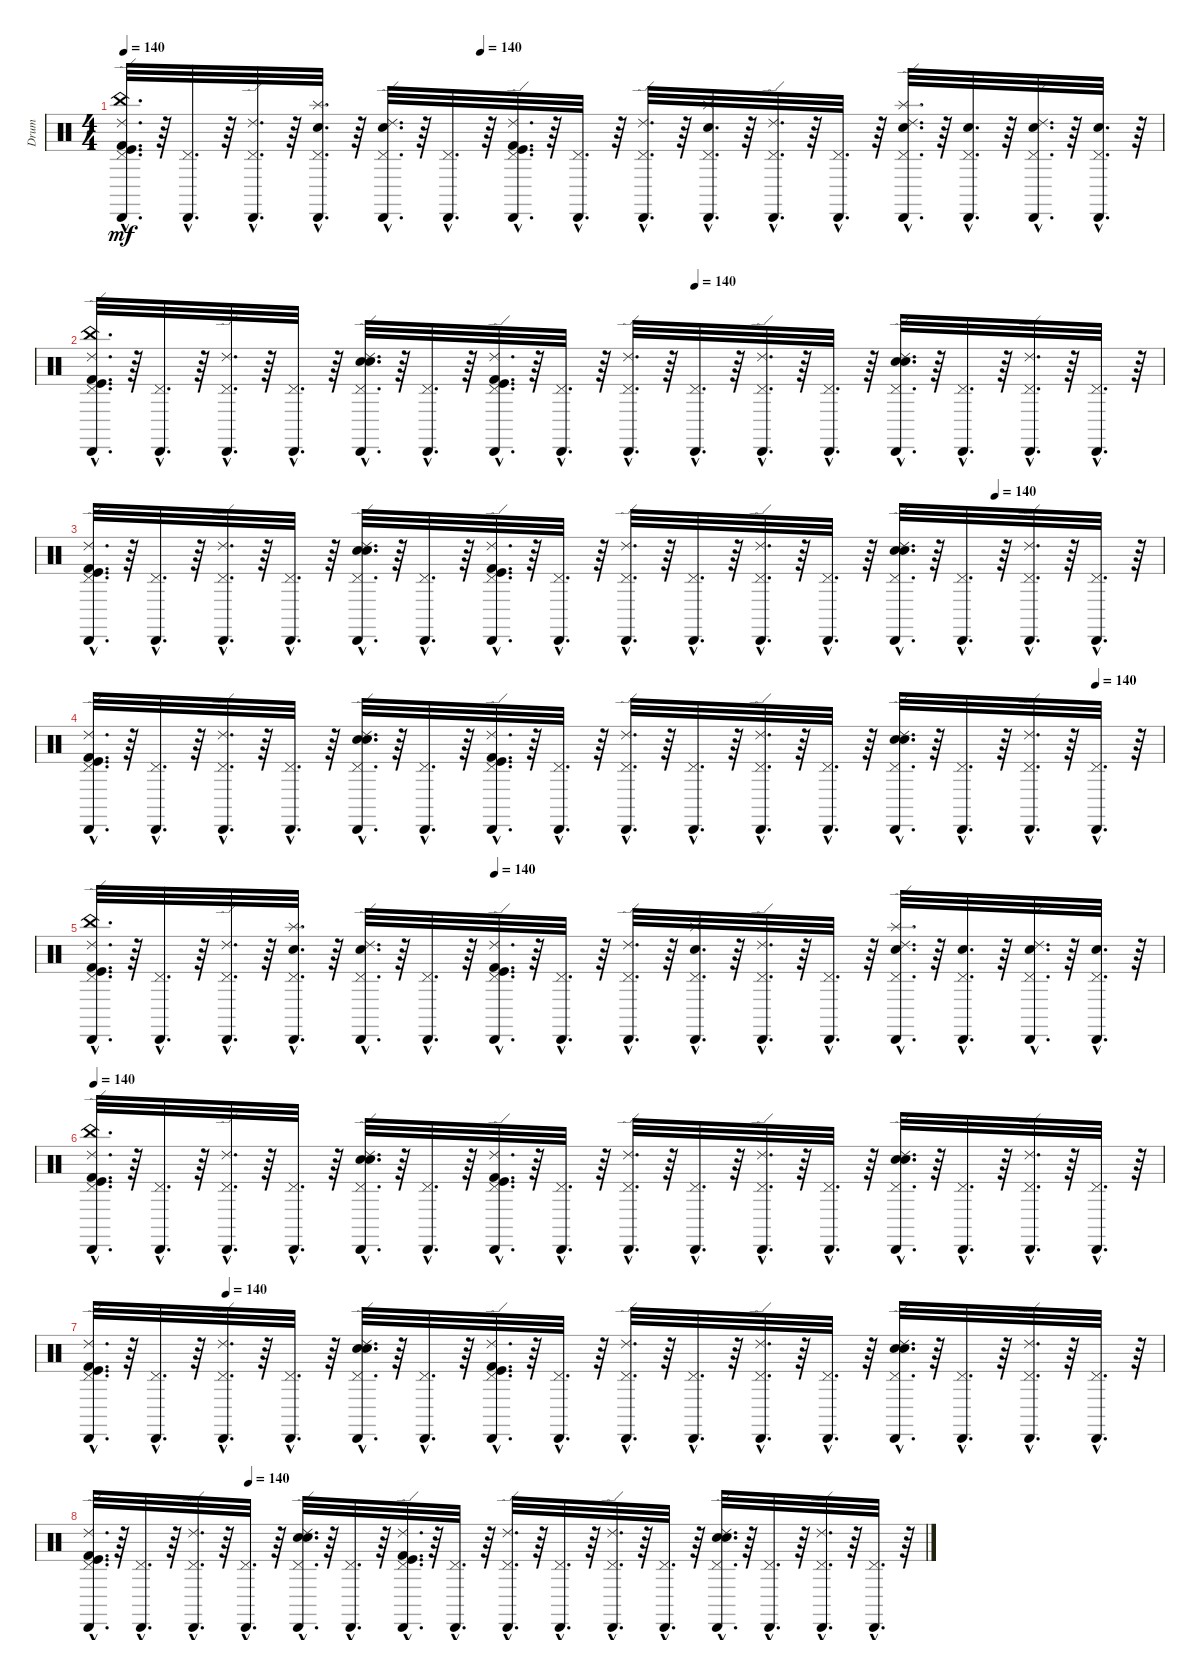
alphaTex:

\track ("Drum" "Drum") {instrument percussion}
\staff {score}
\articulation defaults
\ts (4 4)
\tempo 140
\tempo (140 0.34375)
\clef neutral
\ks c
("Cabasa (hit)"{hac} "China (hit)"{hac} "Pedal Hi-Hat (hit)"{hac} "Kick (hit)"{hac} "Ride (edge) 2"{hac} "Kick (hit) 2"{hac}).32{d dy mf} r.64 ("Pedal Hi-Hat (hit)"{hac} "Cabasa (hit)"{hac}).32{d} r.64 ("Cabasa (hit)"{hac} "Pedal Hi-Hat (hit)"{hac} "Ride (edge) 2"{hac}).32{d} r.64 ("Pedal Hi-Hat (hit)"{hac} "Splash (hit)"{hac} "Snare (hit) 2"{hac} "Cabasa (hit)"{hac}).32{d} r.64 ("Cabasa (hit)"{hac} "Ride (edge) 2"{hac} "Snare (hit) 2"{hac} "Pedal Hi-Hat (hit)"{hac}).32{d} r.64 ("Pedal Hi-Hat (hit)"{hac} "Cabasa (hit)"{hac}).32{d} r.64 ("Kick (hit) 2"{hac} "Kick (hit)"{hac} "Pedal Hi-Hat (hit)"{hac} "Ride (edge) 2"{hac} "Cabasa (hit)"{hac}).32{d} r.64 ("Pedal Hi-Hat (hit)"{hac} "Cabasa (hit)"{hac}).32{d} r.64 ("Ride (edge) 2"{hac} "Cabasa (hit)"{hac} "Pedal Hi-Hat (hit)"{hac}).32{d} r.64 ("Pedal Hi-Hat (hit)"{hac} "Cabasa (hit)"{hac} "Snare (hit) 2"{hac} "Splash (hit)"{hac}).32{d} r.64 ("Pedal Hi-Hat (hit)"{hac} "Ride (edge) 2"{hac} "Cabasa (hit)"{hac}).32{d} r.64 ("Pedal Hi-Hat (hit)"{hac} "Cabasa (hit)"{hac}).32{d} r.64 ("Pedal Hi-Hat (hit)"{hac} "Snare (hit) 2"{hac} "Ride (edge) 2"{hac} "Cabasa (hit)"{hac} "Splash (hit)"{hac}).32{d} r.64 ("Snare (hit) 2"{hac} "Cabasa (hit)"{hac} "Pedal Hi-Hat (hit)"{hac}).32{d} r.64 ("Cabasa (hit)"{hac} "Snare (hit) 2"{hac} "Ride (edge) 2"{hac} "Pedal Hi-Hat (hit)"{hac}).32{d} r.64 ("Pedal Hi-Hat (hit)"{hac} "Snare (hit) 2"{hac} "Cabasa (hit)"{hac}).32{d} r.64 |
\tempo (140 0.5625)
("China (hit)"{hac} "Kick (hit) 2"{hac} "Kick (hit)"{hac} "Ride (edge) 2"{hac} "Cabasa (hit)"{hac} "Pedal Hi-Hat (hit)"{hac}).32{d} r.64 ("Cabasa (hit)"{hac} "Pedal Hi-Hat (hit)"{hac}).32{d} r.64 ("Ride (edge) 2"{hac} "Cabasa (hit)"{hac} "Pedal Hi-Hat (hit)"{hac}).32{d} r.64 ("Cabasa (hit)"{hac} "Pedal Hi-Hat (hit)"{hac}).32{d} r.64 ("Snare (hit) 2"{hac} "Electric Snare (hit)"{hac} "Ride (edge) 2"{hac} "Cabasa (hit)"{hac} "Pedal Hi-Hat (hit)"{hac}).32{d} r.64 ("Cabasa (hit)"{hac} "Pedal Hi-Hat (hit)"{hac}).32{d} r.64 ("Kick (hit)"{hac} "Kick (hit) 2"{hac} "Ride (edge) 2"{hac} "Cabasa (hit)"{hac} "Pedal Hi-Hat (hit)"{hac}).32{d} r.64 ("Cabasa (hit)"{hac} "Pedal Hi-Hat (hit)"{hac}).32{d} r.64 ("Ride (edge) 2"{hac} "Cabasa (hit)"{hac} "Pedal Hi-Hat (hit)"{hac}).32{d} r.64 ("Cabasa (hit)"{hac} "Pedal Hi-Hat (hit)"{hac}).32{d} r.64 ("Ride (edge) 2"{hac} "Cabasa (hit)"{hac} "Pedal Hi-Hat (hit)"{hac}).32{d} r.64 ("Cabasa (hit)"{hac} "Pedal Hi-Hat (hit)"{hac}).32{d} r.64 ("Electric Snare (hit)"{hac} "Snare (hit) 2"{hac} "Ride (edge) 2"{hac} "Cabasa (hit)"{hac} "Pedal Hi-Hat (hit)"{hac}).32{d} r.64 ("Cabasa (hit)"{hac} "Pedal Hi-Hat (hit)"{hac}).32{d} r.64 ("Ride (edge) 2"{hac} "Cabasa (hit)"{hac} "Pedal Hi-Hat (hit)"{hac}).32{d} r.64 ("Cabasa (hit)"{hac} "Pedal Hi-Hat (hit)"{hac}).32{d} r.64 |
\tempo (140 0.84375)
("Pedal Hi-Hat (hit)"{hac} "Cabasa (hit)"{hac} "Ride (edge) 2"{hac} "Kick (hit)"{hac} "Kick (hit) 2"{hac}).32{d} r.64 ("Pedal Hi-Hat (hit)"{hac} "Cabasa (hit)"{hac}).32{d} r.64 ("Pedal Hi-Hat (hit)"{hac} "Cabasa (hit)"{hac} "Ride (edge) 2"{hac}).32{d} r.64 ("Pedal Hi-Hat (hit)"{hac} "Cabasa (hit)"{hac}).32{d} r.64 ("Pedal Hi-Hat (hit)"{hac} "Cabasa (hit)"{hac} "Ride (edge) 2"{hac} "Electric Snare (hit)"{hac} "Snare (hit) 2"{hac}).32{d} r.64 ("Pedal Hi-Hat (hit)"{hac} "Cabasa (hit)"{hac}).32{d} r.64 ("Pedal Hi-Hat (hit)"{hac} "Cabasa (hit)"{hac} "Ride (edge) 2"{hac} "Kick (hit) 2"{hac} "Kick (hit)"{hac}).32{d} r.64 ("Pedal Hi-Hat (hit)"{hac} "Cabasa (hit)"{hac}).32{d} r.64 ("Pedal Hi-Hat (hit)"{hac} "Cabasa (hit)"{hac} "Ride (edge) 2"{hac}).32{d} r.64 ("Pedal Hi-Hat (hit)"{hac} "Cabasa (hit)"{hac}).32{d} r.64 ("Pedal Hi-Hat (hit)"{hac} "Cabasa (hit)"{hac} "Ride (edge) 2"{hac}).32{d} r.64 ("Pedal Hi-Hat (hit)"{hac} "Cabasa (hit)"{hac}).32{d} r.64 ("Pedal Hi-Hat (hit)"{hac} "Cabasa (hit)"{hac} "Ride (edge) 2"{hac} "Snare (hit) 2"{hac} "Electric Snare (hit)"{hac}).32{d} r.64 ("Pedal Hi-Hat (hit)"{hac} "Cabasa (hit)"{hac}).32{d} r.64 ("Pedal Hi-Hat (hit)"{hac} "Cabasa (hit)"{hac} "Ride (edge) 2"{hac}).32{d} r.64 ("Pedal Hi-Hat (hit)"{hac} "Cabasa (hit)"{hac}).32{d} r.64 |
\tempo (140 0.9375)
("Kick (hit) 2"{hac} "Kick (hit)"{hac} "Ride (edge) 2"{hac} "Cabasa (hit)"{hac} "Pedal Hi-Hat (hit)"{hac}).32{d} r.64 ("Cabasa (hit)"{hac} "Pedal Hi-Hat (hit)"{hac}).32{d} r.64 ("Ride (edge) 2"{hac} "Cabasa (hit)"{hac} "Pedal Hi-Hat (hit)"{hac}).32{d} r.64 ("Cabasa (hit)"{hac} "Pedal Hi-Hat (hit)"{hac}).32{d} r.64 ("Snare (hit) 2"{hac} "Electric Snare (hit)"{hac} "Ride (edge) 2"{hac} "Cabasa (hit)"{hac} "Pedal Hi-Hat (hit)"{hac}).32{d} r.64 ("Cabasa (hit)"{hac} "Pedal Hi-Hat (hit)"{hac}).32{d} r.64 ("Kick (hit)"{hac} "Kick (hit) 2"{hac} "Ride (edge) 2"{hac} "Cabasa (hit)"{hac} "Pedal Hi-Hat (hit)"{hac}).32{d} r.64 ("Cabasa (hit)"{hac} "Pedal Hi-Hat (hit)"{hac}).32{d} r.64 ("Ride (edge) 2"{hac} "Cabasa (hit)"{hac} "Pedal Hi-Hat (hit)"{hac}).32{d} r.64 ("Cabasa (hit)"{hac} "Pedal Hi-Hat (hit)"{hac}).32{d} r.64 ("Ride (edge) 2"{hac} "Cabasa (hit)"{hac} "Pedal Hi-Hat (hit)"{hac}).32{d} r.64 ("Cabasa (hit)"{hac} "Pedal Hi-Hat (hit)"{hac}).32{d} r.64 ("Electric Snare (hit)"{hac} "Snare (hit) 2"{hac} "Ride (edge) 2"{hac} "Cabasa (hit)"{hac} "Pedal Hi-Hat (hit)"{hac}).32{d} r.64 ("Cabasa (hit)"{hac} "Pedal Hi-Hat (hit)"{hac}).32{d} r.64 ("Ride (edge) 2"{hac} "Cabasa (hit)"{hac} "Pedal Hi-Hat (hit)"{hac}).32{d} r.64 ("Cabasa (hit)"{hac} "Pedal Hi-Hat (hit)"{hac}).32{d} r.64 |
\tempo (140 0.375)
("China (hit)"{hac} "Cabasa (hit)"{hac} "Ride (edge) 2"{hac} "Kick (hit) 2"{hac} "Kick (hit)"{hac} "Pedal Hi-Hat (hit)"{hac}).32{d} r.64 ("Pedal Hi-Hat (hit)"{hac} "Cabasa (hit)"{hac}).32{d} r.64 ("Ride (edge) 2"{hac} "Cabasa (hit)"{hac} "Pedal Hi-Hat (hit)"{hac}).32{d} r.64 ("Splash (hit)"{hac} "Snare (hit) 2"{hac} "Pedal Hi-Hat (hit)"{hac} "Cabasa (hit)"{hac}).32{d} r.64 ("Snare (hit) 2"{hac} "Ride (edge) 2"{hac} "Cabasa (hit)"{hac} "Pedal Hi-Hat (hit)"{hac}).32{d} r.64 ("Cabasa (hit)"{hac} "Pedal Hi-Hat (hit)"{hac}).32{d} r.64 ("Ride (edge) 2"{hac} "Cabasa (hit)"{hac} "Kick (hit)"{hac} "Kick (hit) 2"{hac} "Pedal Hi-Hat (hit)"{hac}).32{d} r.64 ("Pedal Hi-Hat (hit)"{hac} "Cabasa (hit)"{hac}).32{d} r.64 ("Cabasa (hit)"{hac} "Pedal Hi-Hat (hit)"{hac} "Ride (edge) 2"{hac}).32{d} r.64 ("Splash (hit)"{hac} "Snare (hit) 2"{hac} "Pedal Hi-Hat (hit)"{hac} "Cabasa (hit)"{hac}).32{d} r.64 ("Pedal Hi-Hat (hit)"{hac} "Cabasa (hit)"{hac} "Ride (edge) 2"{hac}).32{d} r.64 ("Pedal Hi-Hat (hit)"{hac} "Cabasa (hit)"{hac}).32{d} r.64 ("Splash (hit)"{hac} "Snare (hit) 2"{hac} "Ride (edge) 2"{hac} "Cabasa (hit)"{hac} "Pedal Hi-Hat (hit)"{hac}).32{d} r.64 ("Snare (hit) 2"{hac} "Pedal Hi-Hat (hit)"{hac} "Cabasa (hit)"{hac}).32{d} r.64 ("Snare (hit) 2"{hac} "Ride (edge) 2"{hac} "Cabasa (hit)"{hac} "Pedal Hi-Hat (hit)"{hac}).32{d} r.64 ("Snare (hit) 2"{hac} "Pedal Hi-Hat (hit)"{hac} "Cabasa (hit)"{hac}).32{d} r.64 |
\tempo 140
("China (hit)"{hac} "Kick (hit) 2"{hac} "Kick (hit)"{hac} "Ride (edge) 2"{hac} "Cabasa (hit)"{hac} "Pedal Hi-Hat (hit)"{hac}).32{d} r.64 ("Cabasa (hit)"{hac} "Pedal Hi-Hat (hit)"{hac}).32{d} r.64 ("Ride (edge) 2"{hac} "Cabasa (hit)"{hac} "Pedal Hi-Hat (hit)"{hac}).32{d} r.64 ("Cabasa (hit)"{hac} "Pedal Hi-Hat (hit)"{hac}).32{d} r.64 ("Snare (hit) 2"{hac} "Electric Snare (hit)"{hac} "Ride (edge) 2"{hac} "Cabasa (hit)"{hac} "Pedal Hi-Hat (hit)"{hac}).32{d} r.64 ("Cabasa (hit)"{hac} "Pedal Hi-Hat (hit)"{hac}).32{d} r.64 ("Kick (hit)"{hac} "Kick (hit) 2"{hac} "Ride (edge) 2"{hac} "Cabasa (hit)"{hac} "Pedal Hi-Hat (hit)"{hac}).32{d} r.64 ("Cabasa (hit)"{hac} "Pedal Hi-Hat (hit)"{hac}).32{d} r.64 ("Ride (edge) 2"{hac} "Cabasa (hit)"{hac} "Pedal Hi-Hat (hit)"{hac}).32{d} r.64 ("Cabasa (hit)"{hac} "Pedal Hi-Hat (hit)"{hac}).32{d} r.64 ("Ride (edge) 2"{hac} "Cabasa (hit)"{hac} "Pedal Hi-Hat (hit)"{hac}).32{d} r.64 ("Cabasa (hit)"{hac} "Pedal Hi-Hat (hit)"{hac}).32{d} r.64 ("Electric Snare (hit)"{hac} "Snare (hit) 2"{hac} "Ride (edge) 2"{hac} "Cabasa (hit)"{hac} "Pedal Hi-Hat (hit)"{hac}).32{d} r.64 ("Cabasa (hit)"{hac} "Pedal Hi-Hat (hit)"{hac}).32{d} r.64 ("Ride (edge) 2"{hac} "Cabasa (hit)"{hac} "Pedal Hi-Hat (hit)"{hac}).32{d} r.64 ("Cabasa (hit)"{hac} "Pedal Hi-Hat (hit)"{hac}).32{d} r.64 |
\tempo (140 0.125)
("Pedal Hi-Hat (hit)"{hac} "Cabasa (hit)"{hac} "Ride (edge) 2"{hac} "Kick (hit)"{hac} "Kick (hit) 2"{hac}).32{d} r.64 ("Pedal Hi-Hat (hit)"{hac} "Cabasa (hit)"{hac}).32{d} r.64 ("Pedal Hi-Hat (hit)"{hac} "Cabasa (hit)"{hac} "Ride (edge) 2"{hac}).32{d} r.64 ("Pedal Hi-Hat (hit)"{hac} "Cabasa (hit)"{hac}).32{d} r.64 ("Pedal Hi-Hat (hit)"{hac} "Cabasa (hit)"{hac} "Ride (edge) 2"{hac} "Electric Snare (hit)"{hac} "Snare (hit) 2"{hac}).32{d} r.64 ("Pedal Hi-Hat (hit)"{hac} "Cabasa (hit)"{hac}).32{d} r.64 ("Pedal Hi-Hat (hit)"{hac} "Cabasa (hit)"{hac} "Ride (edge) 2"{hac} "Kick (hit) 2"{hac} "Kick (hit)"{hac}).32{d} r.64 ("Pedal Hi-Hat (hit)"{hac} "Cabasa (hit)"{hac}).32{d} r.64 ("Pedal Hi-Hat (hit)"{hac} "Cabasa (hit)"{hac} "Ride (edge) 2"{hac}).32{d} r.64 ("Pedal Hi-Hat (hit)"{hac} "Cabasa (hit)"{hac}).32{d} r.64 ("Pedal Hi-Hat (hit)"{hac} "Cabasa (hit)"{hac} "Ride (edge) 2"{hac}).32{d} r.64 ("Pedal Hi-Hat (hit)"{hac} "Cabasa (hit)"{hac}).32{d} r.64 ("Pedal Hi-Hat (hit)"{hac} "Cabasa (hit)"{hac} "Ride (edge) 2"{hac} "Snare (hit) 2"{hac} "Electric Snare (hit)"{hac}).32{d} r.64 ("Pedal Hi-Hat (hit)"{hac} "Cabasa (hit)"{hac}).32{d} r.64 ("Pedal Hi-Hat (hit)"{hac} "Cabasa (hit)"{hac} "Ride (edge) 2"{hac}).32{d} r.64 ("Pedal Hi-Hat (hit)"{hac} "Cabasa (hit)"{hac}).32{d} r.64 |
\tempo (140 0.1875)
("Kick (hit) 2"{hac} "Kick (hit)"{hac} "Ride (edge) 2"{hac} "Cabasa (hit)"{hac} "Pedal Hi-Hat (hit)"{hac}).32{d} r.64 ("Cabasa (hit)"{hac} "Pedal Hi-Hat (hit)"{hac}).32{d} r.64 ("Ride (edge) 2"{hac} "Cabasa (hit)"{hac} "Pedal Hi-Hat (hit)"{hac}).32{d} r.64 ("Cabasa (hit)"{hac} "Pedal Hi-Hat (hit)"{hac}).32{d} r.64 ("Snare (hit) 2"{hac} "Electric Snare (hit)"{hac} "Ride (edge) 2"{hac} "Cabasa (hit)"{hac} "Pedal Hi-Hat (hit)"{hac}).32{d} r.64 ("Cabasa (hit)"{hac} "Pedal Hi-Hat (hit)"{hac}).32{d} r.64 ("Kick (hit)"{hac} "Kick (hit) 2"{hac} "Ride (edge) 2"{hac} "Cabasa (hit)"{hac} "Pedal Hi-Hat (hit)"{hac}).32{d} r.64 ("Cabasa (hit)"{hac} "Pedal Hi-Hat (hit)"{hac}).32{d} r.64 ("Ride (edge) 2"{hac} "Cabasa (hit)"{hac} "Pedal Hi-Hat (hit)"{hac}).32{d} r.64 ("Cabasa (hit)"{hac} "Pedal Hi-Hat (hit)"{hac}).32{d} r.64 ("Ride (edge) 2"{hac} "Cabasa (hit)"{hac} "Pedal Hi-Hat (hit)"{hac}).32{d} r.64 ("Cabasa (hit)"{hac} "Pedal Hi-Hat (hit)"{hac}).32{d} r.64 ("Electric Snare (hit)"{hac} "Snare (hit) 2"{hac} "Ride (edge) 2"{hac} "Cabasa (hit)"{hac} "Pedal Hi-Hat (hit)"{hac}).32{d} r.64 ("Cabasa (hit)"{hac} "Pedal Hi-Hat (hit)"{hac}).32{d} r.64 ("Ride (edge) 2"{hac} "Cabasa (hit)"{hac} "Pedal Hi-Hat (hit)"{hac}).32{d} r.64 ("Cabasa (hit)"{hac} "Pedal Hi-Hat (hit)"{hac}).32{d} r.64
